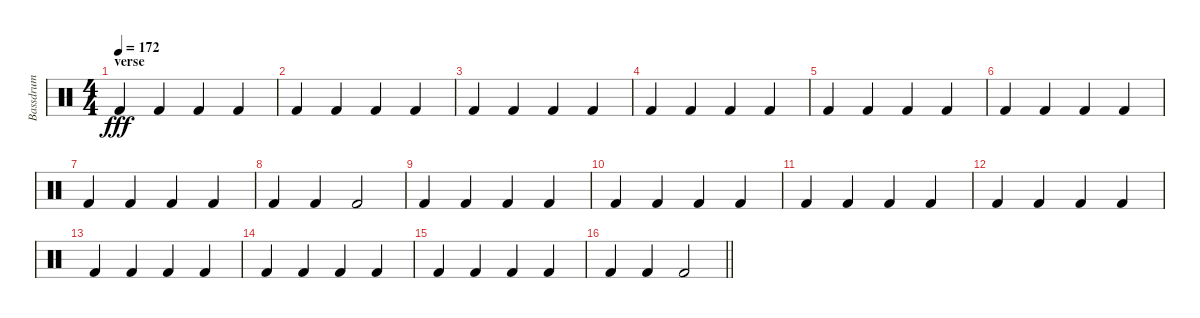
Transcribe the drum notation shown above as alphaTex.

\track ("Bassdrum" "Bassdrum") {instrument percussion}
\staff {score}
\articulation defaults
\ts (4 4)
\section ("" "verse")
\tempo 172
\clef neutral
\ks c "Kick (hit) 2".4{dy fff} "Kick (hit) 2".4 "Kick (hit) 2".4 "Kick (hit) 2".4
|
"Kick (hit) 2".4 "Kick (hit) 2".4 "Kick (hit) 2".4 "Kick (hit) 2".4 |
"Kick (hit) 2".4 "Kick (hit) 2".4 "Kick (hit) 2".4 "Kick (hit) 2".4 |
"Kick (hit) 2".4 "Kick (hit) 2".4 "Kick (hit) 2".4 "Kick (hit) 2".4 |
"Kick (hit) 2".4 "Kick (hit) 2".4 "Kick (hit) 2".4 "Kick (hit) 2".4 |
"Kick (hit) 2".4 "Kick (hit) 2".4 "Kick (hit) 2".4 "Kick (hit) 2".4 |
"Kick (hit) 2".4 "Kick (hit) 2".4 "Kick (hit) 2".4 "Kick (hit) 2".4 |
"Kick (hit) 2".4 "Kick (hit) 2".4 "Kick (hit) 2".2 |
"Kick (hit) 2".4 "Kick (hit) 2".4 "Kick (hit) 2".4 "Kick (hit) 2".4 |
"Kick (hit) 2".4 "Kick (hit) 2".4 "Kick (hit) 2".4 "Kick (hit) 2".4 |
"Kick (hit) 2".4 "Kick (hit) 2".4 "Kick (hit) 2".4 "Kick (hit) 2".4 |
"Kick (hit) 2".4 "Kick (hit) 2".4 "Kick (hit) 2".4 "Kick (hit) 2".4 |
"Kick (hit) 2".4 "Kick (hit) 2".4 "Kick (hit) 2".4 "Kick (hit) 2".4 |
"Kick (hit) 2".4 "Kick (hit) 2".4 "Kick (hit) 2".4 "Kick (hit) 2".4 |
"Kick (hit) 2".4 "Kick (hit) 2".4 "Kick (hit) 2".4 "Kick (hit) 2".4 |
\barLineRight lightlight "Kick (hit) 2".4 "Kick (hit) 2".4 "Kick (hit) 2".2
